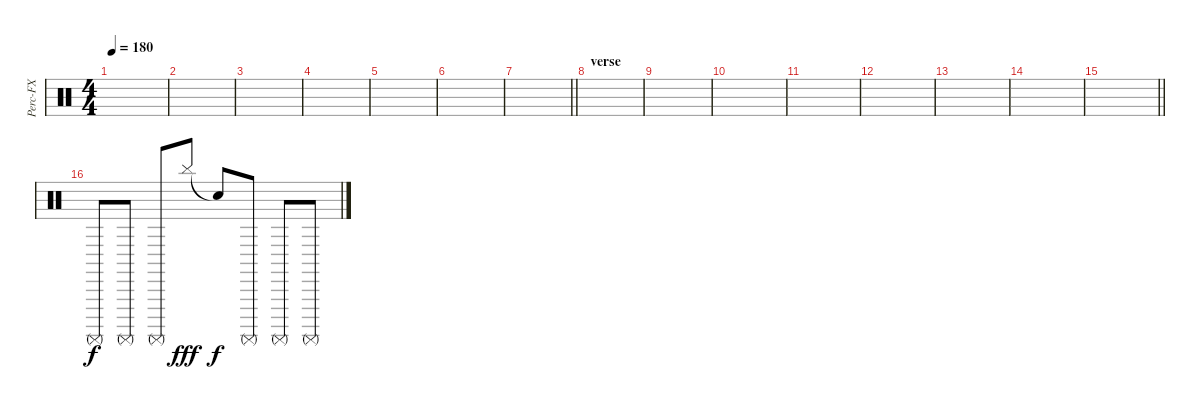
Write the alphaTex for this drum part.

\track ("Perc-FX" "Perc-FX") {instrument percussion}
\staff {score}
\articulation defaults
\ts (4 4)
\tempo 180
\clef neutral
\ks c
|
|
|
|
|
|
\barLineRight lightlight
|
\section ("" "verse")
|
|
|
|
|
|
|
\barLineRight lightlight
|
\section ("" "")
"Surdo (mute)".8 "Surdo (mute)".8 "Surdo (mute)".8 "Cymbal (hit)".8{dy fff} "Snare (hit)"{t}.8{dy f} "Surdo (mute)".8 "Surdo (mute)".8 "Surdo (mute)".8
